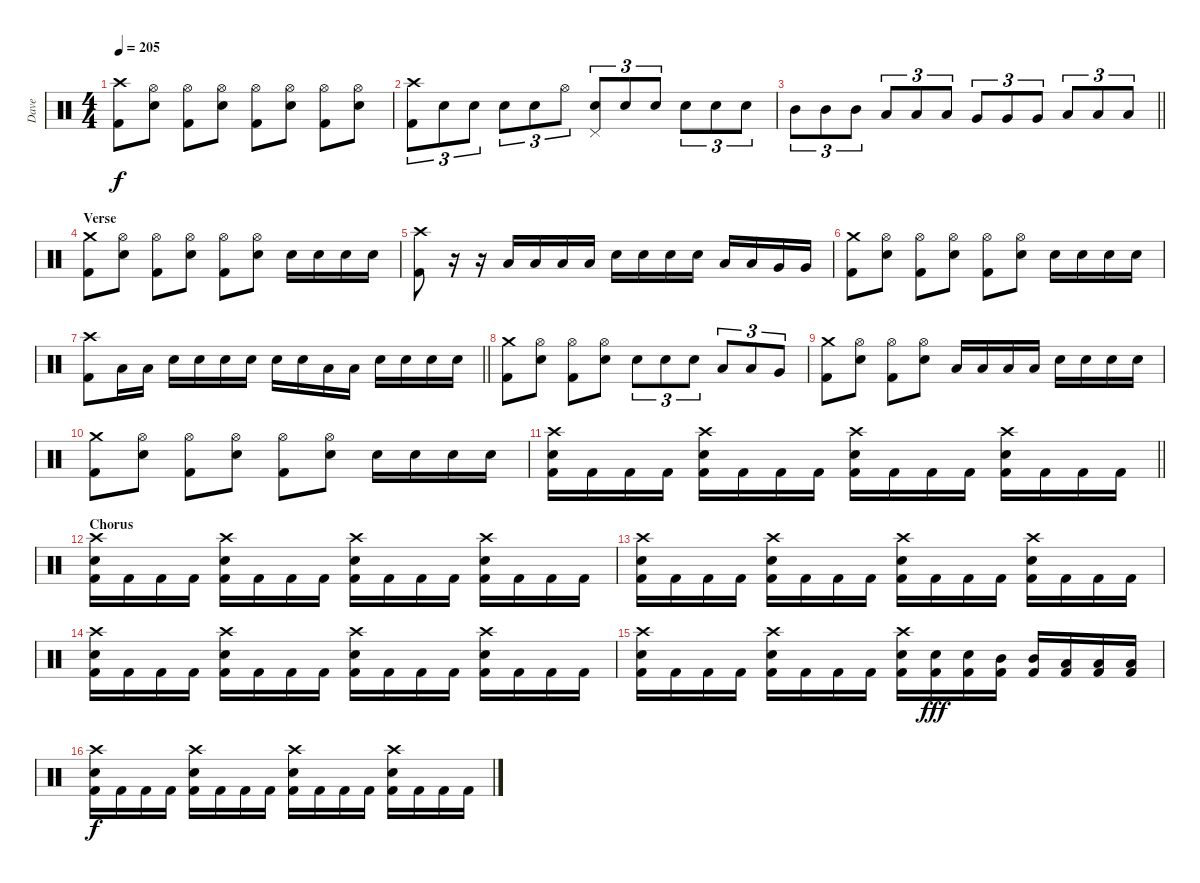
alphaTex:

\track ("Dave" "Dave") {instrument percussion}
\staff {score}
\articulation defaults
\ts (4 4)
\tempo 205
\clef neutral
\ks c
("Crash high (hit)" "Kick (hit) 2").8{dy f} ("Electric Snare (hit)" "Hi-Hat (open)").8 ("Kick (hit) 2" "Hi-Hat (open)").8 ("Electric Snare (hit)" "Hi-Hat (open)").8 ("Kick (hit) 2" "Hi-Hat (open)").8 ("Electric Snare (hit)" "Hi-Hat (open)").8 ("Kick (hit) 2" "Hi-Hat (open)").8 ("Electric Snare (hit)" "Hi-Hat (open)").8 |
("Crash high (hit)" "Kick (hit) 2").8{tu (3 2)} "Electric Snare (hit)".8{tu (3 2)} "Electric Snare (hit)".8{tu (3 2)} "Electric Snare (hit)".8{tu (3 2)} "Electric Snare (hit)".8{tu (3 2)} "Hi-Hat (open)".8{tu (3 2)} ("Pedal Hi-Hat (hit)" "Electric Snare (hit)").8{tu (3 2)} "Electric Snare (hit)".8{tu (3 2)} "Electric Snare (hit)".8{tu (3 2)} "Electric Snare (hit)".8{tu (3 2)} "Electric Snare (hit)".8{tu (3 2)} "Electric Snare (hit)".8{tu (3 2)} |
\barLineRight lightlight "Mid Tom (hit)".8{tu (3 2)} "Mid Tom (hit)".8{tu (3 2)} "Mid Tom (hit)".8{tu (3 2)} "Low Tom (hit)".8{tu (3 2)} "Low Tom (hit)".8{tu (3 2)} "Low Tom (hit)".8{tu (3 2)} "Very Low Tom (hit)".8{tu (3 2)} "Very Low Tom (hit)".8{tu (3 2)} "Very Low Tom (hit)".8{tu (3 2)} "Low Floor Tom (hit)".8{tu (3 2)} "Low Floor Tom (hit)".8{tu (3 2)} "Low Floor Tom (hit)".8{tu (3 2)}
|
\section ("" "Verse")
("Crash medium (hit)" "Kick (hit) 2").8 ("Electric Snare (hit)" "Hi-Hat (open)").8 ("Kick (hit) 2" "Hi-Hat (open)").8 ("Electric Snare (hit)" "Hi-Hat (open)").8 ("Kick (hit) 2" "Hi-Hat (open)").8 ("Electric Snare (hit)" "Hi-Hat (open)").8 "Electric Snare (hit)".16 "Electric Snare (hit)".16 "Electric Snare (hit)".16 "Electric Snare (hit)".16 |
("Crash high (hit)" "Kick (hit) 2").8 r.16 r.16 "Low Tom (hit)".16 "Low Tom (hit)".16 "Low Tom (hit)".16 "Low Tom (hit)".16 "Electric Snare (hit)".16 "Electric Snare (hit)".16 "Electric Snare (hit)".16 "Electric Snare (hit)".16 "Low Tom (hit)".16 "Low Tom (hit)".16 "Very Low Tom (hit)".16 "Very Low Tom (hit)".16 |
("Crash medium (hit)" "Kick (hit) 2").8 ("Electric Snare (hit)" "Hi-Hat (open)").8 ("Kick (hit) 2" "Hi-Hat (open)").8 ("Electric Snare (hit)" "Hi-Hat (open)").8 ("Kick (hit) 2" "Hi-Hat (open)").8 ("Electric Snare (hit)" "Hi-Hat (open)").8 "Electric Snare (hit)".16 "Electric Snare (hit)".16 "Electric Snare (hit)".16 "Electric Snare (hit)".16 |
\barLineRight lightlight
("Crash high (hit)" "Kick (hit) 2").8 "Low Tom (hit)".16 "Low Tom (hit)".16 "Electric Snare (hit)".16 "Electric Snare (hit)".16 "Electric Snare (hit)".16 "Electric Snare (hit)".16 "Electric Snare (hit)".16 "Electric Snare (hit)".16 "Low Tom (hit)".16 "Low Tom (hit)".16 "Electric Snare (hit)".16 "Electric Snare (hit)".16 "Electric Snare (hit)".16 "Electric Snare (hit)".16 |
("Crash medium (hit)" "Kick (hit) 2").8 ("Electric Snare (hit)" "Hi-Hat (open)").8 ("Kick (hit) 2" "Hi-Hat (open)").8 ("Electric Snare (hit)" "Hi-Hat (open)").8 "Electric Snare (hit)".8{tu (3 2)} "Electric Snare (hit)".8{tu (3 2)} "Electric Snare (hit)".8{tu (3 2)} "Low Tom (hit)".8{tu (3 2)} "Low Tom (hit)".8{tu (3 2)} "Very Low Tom (hit)".8{tu (3 2)} |
("Crash medium (hit)" "Kick (hit) 2").8 ("Electric Snare (hit)" "Hi-Hat (open)").8 ("Kick (hit) 2" "Hi-Hat (open)").8 ("Electric Snare (hit)" "Hi-Hat (open)").8 "Low Tom (hit)".16 "Low Tom (hit)".16 "Low Tom (hit)".16 "Low Tom (hit)".16 "Electric Snare (hit)".16 "Electric Snare (hit)".16 "Electric Snare (hit)".16 "Electric Snare (hit)".16 |
("Crash medium (hit)" "Kick (hit) 2").8 ("Electric Snare (hit)" "Hi-Hat (open)").8 ("Kick (hit) 2" "Hi-Hat (open)").8 ("Electric Snare (hit)" "Hi-Hat (open)").8 ("Kick (hit) 2" "Hi-Hat (open)").8 ("Electric Snare (hit)" "Hi-Hat (open)").8 "Electric Snare (hit)".16 "Electric Snare (hit)".16 "Electric Snare (hit)".16 "Electric Snare (hit)".16 |
\barLineRight lightlight
("Crash high (hit)" "Electric Snare (hit)" "Kick (hit) 2").16 "Kick (hit) 2".16 "Kick (hit) 2".16 "Kick (hit) 2".16 ("Crash high (hit)" "Electric Snare (hit)" "Kick (hit) 2").16 "Kick (hit) 2".16 "Kick (hit) 2".16 "Kick (hit) 2".16 ("Crash high (hit)" "Electric Snare (hit)" "Kick (hit) 2").16 "Kick (hit) 2".16 "Kick (hit) 2".16 "Kick (hit) 2".16 ("Crash high (hit)" "Electric Snare (hit)" "Kick (hit) 2").16 "Kick (hit) 2".16 "Kick (hit) 2".16 "Kick (hit) 2".16 |
\section ("" "Chorus")
("Crash high (hit)" "Electric Snare (hit)" "Kick (hit) 2").16 "Kick (hit) 2".16 "Kick (hit) 2".16 "Kick (hit) 2".16 ("Crash high (hit)" "Electric Snare (hit)" "Kick (hit) 2").16 "Kick (hit) 2".16 "Kick (hit) 2".16 "Kick (hit) 2".16 ("Crash high (hit)" "Electric Snare (hit)" "Kick (hit) 2").16 "Kick (hit) 2".16 "Kick (hit) 2".16 "Kick (hit) 2".16 ("Crash high (hit)" "Electric Snare (hit)" "Kick (hit) 2").16 "Kick (hit) 2".16 "Kick (hit) 2".16 "Kick (hit) 2".16 |
("Crash high (hit)" "Electric Snare (hit)" "Kick (hit) 2").16 "Kick (hit) 2".16 "Kick (hit) 2".16 "Kick (hit) 2".16 ("Crash high (hit)" "Electric Snare (hit)" "Kick (hit) 2").16 "Kick (hit) 2".16 "Kick (hit) 2".16 "Kick (hit) 2".16 ("Crash high (hit)" "Electric Snare (hit)" "Kick (hit) 2").16 "Kick (hit) 2".16 "Kick (hit) 2".16 "Kick (hit) 2".16 ("Crash high (hit)" "Electric Snare (hit)" "Kick (hit) 2").16 "Kick (hit) 2".16 "Kick (hit) 2".16 "Kick (hit) 2".16 |
("Crash high (hit)" "Electric Snare (hit)" "Kick (hit) 2").16 "Kick (hit) 2".16 "Kick (hit) 2".16 "Kick (hit) 2".16 ("Crash high (hit)" "Electric Snare (hit)" "Kick (hit) 2").16 "Kick (hit) 2".16 "Kick (hit) 2".16 "Kick (hit) 2".16 ("Crash high (hit)" "Electric Snare (hit)" "Kick (hit) 2").16 "Kick (hit) 2".16 "Kick (hit) 2".16 "Kick (hit) 2".16 ("Crash high (hit)" "Electric Snare (hit)" "Kick (hit) 2").16 "Kick (hit) 2".16 "Kick (hit) 2".16 "Kick (hit) 2".16 |
("Crash high (hit)" "Electric Snare (hit)" "Kick (hit) 2").16 "Kick (hit) 2".16 "Kick (hit) 2".16 "Kick (hit) 2".16 ("Crash high (hit)" "Electric Snare (hit)" "Kick (hit) 2").16 "Kick (hit) 2".16 "Kick (hit) 2".16 "Kick (hit) 2".16 ("Crash high (hit)" "Electric Snare (hit)" "Kick (hit) 2").16 ("Electric Snare (hit)" "Kick (hit) 2").16{dy fff} ("Electric Snare (hit)" "Kick (hit) 2").16 ("Mid Tom (hit)" "Kick (hit) 2").16 ("Mid Tom (hit)" "Kick (hit) 2").16 ("Low Tom (hit)" "Kick (hit) 2").16 ("Low Tom (hit)" "Kick (hit) 2").16 ("Low Tom (hit)" "Kick (hit) 2").16 |
("Crash high (hit)" "Electric Snare (hit)" "Kick (hit) 2").16{dy f} "Kick (hit) 2".16 "Kick (hit) 2".16 "Kick (hit) 2".16 ("Crash high (hit)" "Electric Snare (hit)" "Kick (hit) 2").16 "Kick (hit) 2".16 "Kick (hit) 2".16 "Kick (hit) 2".16 ("Crash high (hit)" "Electric Snare (hit)" "Kick (hit) 2").16 "Kick (hit) 2".16 "Kick (hit) 2".16 "Kick (hit) 2".16 ("Crash high (hit)" "Electric Snare (hit)" "Kick (hit) 2").16 "Kick (hit) 2".16 "Kick (hit) 2".16 "Kick (hit) 2".16
